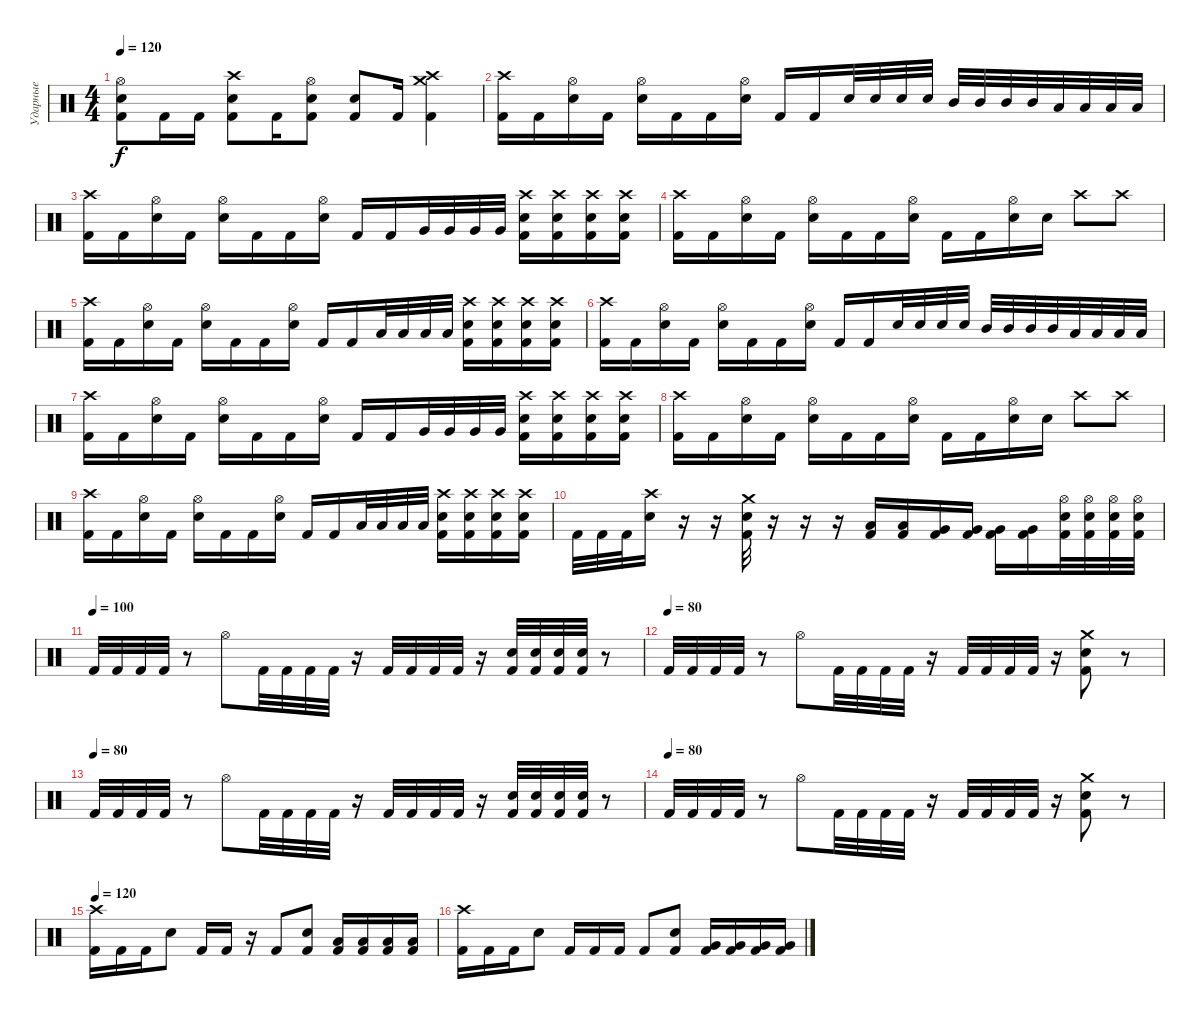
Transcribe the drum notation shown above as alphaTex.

\track ("Ударные" "Ударные") {instrument percussion}
\staff {score}
\articulation defaults
\ts (4 4)
\tempo 120
\clef neutral
\ks c
("Hi-Hat (open)" "Electric Snare (hit)" "Kick (hit) 2").8{dy f} "Kick (hit) 2".16 "Kick (hit) 2".16 ("Crash high (hit)" "Electric Snare (hit)" "Kick (hit) 2").8 "Kick (hit) 2".16 ("Hi-Hat (open)" "Electric Snare (hit)" "Kick (hit) 2").8 ("Electric Snare (hit)" "Kick (hit) 2").8 "Kick (hit) 2".16 ("Crash high (hit)" "Crash medium (hit)" "Kick (hit) 2").4 |
("Crash high (hit)" "Kick (hit) 2").16 "Kick (hit) 2".16 ("Hi-Hat (open)" "Electric Snare (hit)").16 "Kick (hit) 2".16 ("Hi-Hat (open)" "Electric Snare (hit)").16 "Kick (hit) 2".16 "Kick (hit) 2".16 ("Hi-Hat (open)" "Electric Snare (hit)").16 "Kick (hit) 2".16 "Kick (hit) 2".16 "Electric Snare (hit)".32 "Electric Snare (hit)".32 "Electric Snare (hit)".32 "Electric Snare (hit)".32 "Mid Tom (hit)".32 "Mid Tom (hit)".32 "Mid Tom (hit)".32 "Mid Tom (hit)".32 "Low Tom (hit)".32 "Low Tom (hit)".32 "Low Tom (hit)".32 "Low Tom (hit)".32 |
("Crash high (hit)" "Kick (hit) 2").16 "Kick (hit) 2".16 ("Hi-Hat (open)" "Electric Snare (hit)").16 "Kick (hit) 2".16 ("Hi-Hat (open)" "Electric Snare (hit)").16 "Kick (hit) 2".16 "Kick (hit) 2".16 ("Hi-Hat (open)" "Electric Snare (hit)").16 "Kick (hit) 2".16 "Kick (hit) 2".16 "Very Low Tom (hit)".32 "Very Low Tom (hit)".32 "Very Low Tom (hit)".32 "Very Low Tom (hit)".32 ("Crash high (hit)" "Electric Snare (hit)" "Kick (hit) 2").16 ("Crash high (hit)" "Electric Snare (hit)" "Kick (hit) 2").16 ("Crash high (hit)" "Electric Snare (hit)" "Kick (hit) 2").16 ("Crash high (hit)" "Electric Snare (hit)" "Kick (hit) 2").16 |
("Crash high (hit)" "Kick (hit) 2").16 "Kick (hit) 2".16 ("Hi-Hat (open)" "Electric Snare (hit)").16 "Kick (hit) 2".16 ("Hi-Hat (open)" "Electric Snare (hit)").16 "Kick (hit) 2".16 "Kick (hit) 2".16 ("Hi-Hat (open)" "Electric Snare (hit)").16 "Kick (hit) 2".16 "Kick (hit) 2".16 ("Hi-Hat (open)" "Electric Snare (hit)").16 "Electric Snare (hit)".16 "Crash high (hit)".8 "Crash high (hit)".8 |
("Crash high (hit)" "Kick (hit) 2").16 "Kick (hit) 2".16 ("Hi-Hat (open)" "Electric Snare (hit)").16 "Kick (hit) 2".16 ("Hi-Hat (open)" "Electric Snare (hit)").16 "Kick (hit) 2".16 "Kick (hit) 2".16 ("Hi-Hat (open)" "Electric Snare (hit)").16 "Kick (hit) 2".16 "Kick (hit) 2".16 "Low Tom (hit)".32 "Low Tom (hit)".32 "Low Tom (hit)".32 "Low Tom (hit)".32 ("Crash high (hit)" "Electric Snare (hit)" "Kick (hit) 2").16 ("Crash high (hit)" "Electric Snare (hit)" "Kick (hit) 2").16 ("Crash high (hit)" "Electric Snare (hit)" "Kick (hit) 2").16 ("Crash high (hit)" "Electric Snare (hit)" "Kick (hit) 2").16 |
("Crash high (hit)" "Kick (hit) 2").16 "Kick (hit) 2".16 ("Hi-Hat (open)" "Electric Snare (hit)").16 "Kick (hit) 2".16 ("Hi-Hat (open)" "Electric Snare (hit)").16 "Kick (hit) 2".16 "Kick (hit) 2".16 ("Hi-Hat (open)" "Electric Snare (hit)").16 "Kick (hit) 2".16 "Kick (hit) 2".16 "Electric Snare (hit)".32 "Electric Snare (hit)".32 "Electric Snare (hit)".32 "Electric Snare (hit)".32 "Mid Tom (hit)".32 "Mid Tom (hit)".32 "Mid Tom (hit)".32 "Mid Tom (hit)".32 "Low Tom (hit)".32 "Low Tom (hit)".32 "Low Tom (hit)".32 "Low Tom (hit)".32 |
("Crash high (hit)" "Kick (hit) 2").16 "Kick (hit) 2".16 ("Hi-Hat (open)" "Electric Snare (hit)").16 "Kick (hit) 2".16 ("Hi-Hat (open)" "Electric Snare (hit)").16 "Kick (hit) 2".16 "Kick (hit) 2".16 ("Hi-Hat (open)" "Electric Snare (hit)").16 "Kick (hit) 2".16 "Kick (hit) 2".16 "Very Low Tom (hit)".32 "Very Low Tom (hit)".32 "Very Low Tom (hit)".32 "Very Low Tom (hit)".32 ("Crash high (hit)" "Electric Snare (hit)" "Kick (hit) 2").16 ("Crash high (hit)" "Electric Snare (hit)" "Kick (hit) 2").16 ("Crash high (hit)" "Electric Snare (hit)" "Kick (hit) 2").16 ("Crash high (hit)" "Electric Snare (hit)" "Kick (hit) 2").16 |
("Crash high (hit)" "Kick (hit) 2").16 "Kick (hit) 2".16 ("Hi-Hat (open)" "Electric Snare (hit)").16 "Kick (hit) 2".16 ("Hi-Hat (open)" "Electric Snare (hit)").16 "Kick (hit) 2".16 "Kick (hit) 2".16 ("Hi-Hat (open)" "Electric Snare (hit)").16 "Kick (hit) 2".16 "Kick (hit) 2".16 ("Hi-Hat (open)" "Electric Snare (hit)").16 "Electric Snare (hit)".16 "Crash high (hit)".8 "Crash high (hit)".8 |
("Crash high (hit)" "Kick (hit) 2").16 "Kick (hit) 2".16 ("Hi-Hat (open)" "Electric Snare (hit)").16 "Kick (hit) 2".16 ("Hi-Hat (open)" "Electric Snare (hit)").16 "Kick (hit) 2".16 "Kick (hit) 2".16 ("Hi-Hat (open)" "Electric Snare (hit)").16 "Kick (hit) 2".16 "Kick (hit) 2".16 "Low Tom (hit)".32 "Low Tom (hit)".32 "Low Tom (hit)".32 "Low Tom (hit)".32 ("Crash high (hit)" "Electric Snare (hit)" "Kick (hit) 2").16 ("Crash high (hit)" "Electric Snare (hit)" "Kick (hit) 2").16 ("Crash high (hit)" "Electric Snare (hit)" "Kick (hit) 2").16 ("Crash high (hit)" "Electric Snare (hit)" "Kick (hit) 2").16 |
"Kick (hit) 2".32 "Kick (hit) 2".32 "Kick (hit) 2".32 ("Crash high (hit)" "Electric Snare (hit)").16 r.16 r.16 ("Crash medium (hit)" "Electric Snare (hit)" "Kick (hit) 2").32 r.16 r.16 r.16 ("Low Tom (hit)" "Kick (hit) 2").16 ("Low Tom (hit)" "Kick (hit) 2").16 ("Very Low Tom (hit)" "Kick (hit) 2").16 ("Very Low Tom (hit)" "Kick (hit) 2").16 ("Very Low Tom (hit)" "Kick (hit) 2").16 ("Very Low Tom (hit)" "Kick (hit) 2").16 ("Electric Snare (hit)" "Hi-Hat (open)" "Kick (hit) 2").32 ("Electric Snare (hit)" "Hi-Hat (open)" "Kick (hit) 2").32 ("Electric Snare (hit)" "Hi-Hat (open)" "Kick (hit) 2").32 ("Electric Snare (hit)" "Hi-Hat (open)" "Kick (hit) 2").32 |
\tempo 80
\tempo (100)
"Kick (hit) 2".32 "Kick (hit) 2".32 "Kick (hit) 2".32 "Kick (hit) 2".32 r.8 "Hi-Hat (open)".8 "Kick (hit) 2".32 "Kick (hit) 2".32 "Kick (hit) 2".32 "Kick (hit) 2".32 r.16 "Kick (hit) 2".32 "Kick (hit) 2".32 "Kick (hit) 2".32 "Kick (hit) 2".32 r.16 ("Electric Snare (hit)" "Kick (hit) 2").32 ("Electric Snare (hit)" "Kick (hit) 2").32 ("Electric Snare (hit)" "Kick (hit) 2").32 ("Electric Snare (hit)" "Kick (hit) 2").32 r.8 |
\tempo (80)
"Kick (hit) 2".32 "Kick (hit) 2".32 "Kick (hit) 2".32 "Kick (hit) 2".32 r.8 "Hi-Hat (open)".8 "Kick (hit) 2".32 "Kick (hit) 2".32 "Kick (hit) 2".32 "Kick (hit) 2".32 r.16 "Kick (hit) 2".32 "Kick (hit) 2".32 "Kick (hit) 2".32 "Kick (hit) 2".32 r.16 ("Crash medium (hit)" "Electric Snare (hit)" "Kick (hit) 2").8 r.8 |
\tempo (80)
"Kick (hit) 2".32 "Kick (hit) 2".32 "Kick (hit) 2".32 "Kick (hit) 2".32 r.8 "Hi-Hat (open)".8 "Kick (hit) 2".32 "Kick (hit) 2".32 "Kick (hit) 2".32 "Kick (hit) 2".32 r.16 "Kick (hit) 2".32 "Kick (hit) 2".32 "Kick (hit) 2".32 "Kick (hit) 2".32 r.16 ("Electric Snare (hit)" "Kick (hit) 2").32 ("Electric Snare (hit)" "Kick (hit) 2").32 ("Electric Snare (hit)" "Kick (hit) 2").32 ("Electric Snare (hit)" "Kick (hit) 2").32 r.8 |
\tempo (80)
"Kick (hit) 2".32 "Kick (hit) 2".32 "Kick (hit) 2".32 "Kick (hit) 2".32 r.8 "Hi-Hat (open)".8 "Kick (hit) 2".32 "Kick (hit) 2".32 "Kick (hit) 2".32 "Kick (hit) 2".32 r.16 "Kick (hit) 2".32 "Kick (hit) 2".32 "Kick (hit) 2".32 "Kick (hit) 2".32 r.16 ("Crash medium (hit)" "Electric Snare (hit)" "Kick (hit) 2").8 r.8 |
\tempo 120
("Crash high (hit)" "Kick (hit) 2").16 "Kick (hit) 2".16 "Kick (hit) 2".16 "Electric Snare (hit)".8 "Kick (hit) 2".16 "Kick (hit) 2".16 r.16 "Kick (hit) 2".8 ("Electric Snare (hit)" "Kick (hit) 2").8 ("Low Tom (hit)" "Kick (hit) 2").16 ("Low Tom (hit)" "Kick (hit) 2").16 ("Low Tom (hit)" "Kick (hit) 2").16 ("Low Tom (hit)" "Kick (hit) 2").16 |
("Crash high (hit)" "Kick (hit) 2").16 "Kick (hit) 2".16 "Kick (hit) 2".16 "Electric Snare (hit)".8 "Kick (hit) 2".16 "Kick (hit) 2".16 "Kick (hit) 2".16 "Kick (hit) 2".8 ("Electric Snare (hit)" "Kick (hit) 2").8 ("Very Low Tom (hit)" "Kick (hit) 2").16 ("Very Low Tom (hit)" "Kick (hit) 2").16 ("Very Low Tom (hit)" "Kick (hit) 2").16 ("Very Low Tom (hit)" "Kick (hit) 2").16
